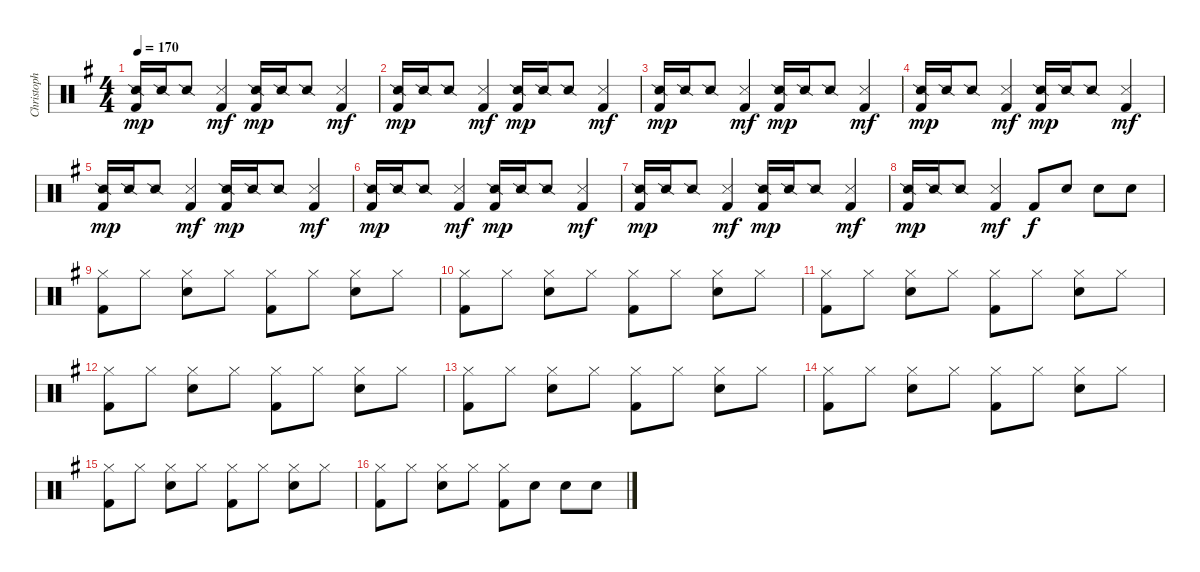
\track ("Christoph Doom Schneider - Drums" "Christoph ") {instrument percussion}
\staff {score}
\articulation defaults
\ts (4 4)
\tempo 170
\clef neutral
\ks g
("Snare (side stick) 2" "Kick (hit) 2").16{dy mp} "Snare (side stick) 2".16 "Snare (side stick) 2".8 ("Snare (side stick) 3" "Kick (hit) 2").4{dy mf} ("Snare (side stick) 2" "Kick (hit) 2").16{dy mp} "Snare (side stick) 2".16 "Snare (side stick) 2".8 ("Snare (side stick) 3" "Kick (hit) 2").4{dy mf} |
("Snare (side stick) 2" "Kick (hit) 2").16{dy mp} "Snare (side stick) 2".16 "Snare (side stick) 2".8 ("Snare (side stick) 3" "Kick (hit) 2").4{dy mf} ("Snare (side stick) 2" "Kick (hit) 2").16{dy mp} "Snare (side stick) 2".16 "Snare (side stick) 2".8 ("Snare (side stick) 3" "Kick (hit) 2").4{dy mf} |
("Snare (side stick) 2" "Kick (hit) 2").16{dy mp} "Snare (side stick) 2".16 "Snare (side stick) 2".8 ("Snare (side stick) 3" "Kick (hit) 2").4{dy mf} ("Snare (side stick) 2" "Kick (hit) 2").16{dy mp} "Snare (side stick) 2".16 "Snare (side stick) 2".8 ("Snare (side stick) 3" "Kick (hit) 2").4{dy mf} |
("Snare (side stick) 2" "Kick (hit) 2").16{dy mp} "Snare (side stick) 2".16 "Snare (side stick) 2".8 ("Snare (side stick) 3" "Kick (hit) 2").4{dy mf} ("Snare (side stick) 2" "Kick (hit) 2").16{dy mp} "Snare (side stick) 2".16 "Snare (side stick) 2".8 ("Snare (side stick) 3" "Kick (hit) 2").4{dy mf} |
("Snare (side stick) 2" "Kick (hit) 2").16{dy mp} "Snare (side stick) 2".16 "Snare (side stick) 2".8 ("Snare (side stick) 3" "Kick (hit) 2").4{dy mf} ("Snare (side stick) 2" "Kick (hit) 2").16{dy mp} "Snare (side stick) 2".16 "Snare (side stick) 2".8 ("Snare (side stick) 3" "Kick (hit) 2").4{dy mf} |
("Snare (side stick) 2" "Kick (hit) 2").16{dy mp} "Snare (side stick) 2".16 "Snare (side stick) 2".8 ("Snare (side stick) 3" "Kick (hit) 2").4{dy mf} ("Snare (side stick) 2" "Kick (hit) 2").16{dy mp} "Snare (side stick) 2".16 "Snare (side stick) 2".8 ("Snare (side stick) 3" "Kick (hit) 2").4{dy mf} |
("Snare (side stick) 2" "Kick (hit) 2").16{dy mp} "Snare (side stick) 2".16 "Snare (side stick) 2".8 ("Snare (side stick) 3" "Kick (hit) 2").4{dy mf} ("Snare (side stick) 2" "Kick (hit) 2").16{dy mp} "Snare (side stick) 2".16 "Snare (side stick) 2".8 ("Snare (side stick) 3" "Kick (hit) 2").4{dy mf} |
("Snare (side stick) 2" "Kick (hit) 2").16{dy mp} "Snare (side stick) 2".16 "Snare (side stick) 2".8 ("Snare (side stick) 3" "Kick (hit) 2").4{dy mf} "Kick (hit) 2".8{dy f} "Electric Snare (hit)".8 "Electric Snare (hit)".8 "Electric Snare (hit)".8 |
("Hi-Hat (closed)" "Kick (hit) 2").8 "Hi-Hat (closed)".8 ("Hi-Hat (closed)" "Electric Snare (hit)").8 "Hi-Hat (closed)".8 ("Hi-Hat (closed)" "Kick (hit) 2").8 "Hi-Hat (closed)".8 ("Hi-Hat (closed)" "Electric Snare (hit)").8 "Hi-Hat (closed)".8 |
("Hi-Hat (closed)" "Kick (hit) 2").8 "Hi-Hat (closed)".8 ("Hi-Hat (closed)" "Electric Snare (hit)").8 "Hi-Hat (closed)".8 ("Hi-Hat (closed)" "Kick (hit) 2").8 "Hi-Hat (closed)".8 ("Hi-Hat (closed)" "Electric Snare (hit)").8 "Hi-Hat (closed)".8 |
("Hi-Hat (closed)" "Kick (hit) 2").8 "Hi-Hat (closed)".8 ("Hi-Hat (closed)" "Electric Snare (hit)").8 "Hi-Hat (closed)".8 ("Hi-Hat (closed)" "Kick (hit) 2").8 "Hi-Hat (closed)".8 ("Hi-Hat (closed)" "Electric Snare (hit)").8 "Hi-Hat (closed)".8 |
("Hi-Hat (closed)" "Kick (hit) 2").8 "Hi-Hat (closed)".8 ("Hi-Hat (closed)" "Electric Snare (hit)").8 "Hi-Hat (closed)".8 ("Hi-Hat (closed)" "Kick (hit) 2").8 "Hi-Hat (closed)".8 ("Hi-Hat (closed)" "Electric Snare (hit)").8 "Hi-Hat (closed)".8 |
("Hi-Hat (closed)" "Kick (hit) 2").8 "Hi-Hat (closed)".8 ("Hi-Hat (closed)" "Electric Snare (hit)").8 "Hi-Hat (closed)".8 ("Hi-Hat (closed)" "Kick (hit) 2").8 "Hi-Hat (closed)".8 ("Hi-Hat (closed)" "Electric Snare (hit)").8 "Hi-Hat (closed)".8 |
("Hi-Hat (closed)" "Kick (hit) 2").8 "Hi-Hat (closed)".8 ("Hi-Hat (closed)" "Electric Snare (hit)").8 "Hi-Hat (closed)".8 ("Hi-Hat (closed)" "Kick (hit) 2").8 "Hi-Hat (closed)".8 ("Hi-Hat (closed)" "Electric Snare (hit)").8 "Hi-Hat (closed)".8 |
("Hi-Hat (closed)" "Kick (hit) 2").8 "Hi-Hat (closed)".8 ("Hi-Hat (closed)" "Electric Snare (hit)").8 "Hi-Hat (closed)".8 ("Hi-Hat (closed)" "Kick (hit) 2").8 "Hi-Hat (closed)".8 ("Hi-Hat (closed)" "Electric Snare (hit)").8 "Hi-Hat (closed)".8 |
("Hi-Hat (closed)" "Kick (hit) 2").8 "Hi-Hat (closed)".8 ("Hi-Hat (closed)" "Electric Snare (hit)").8 "Hi-Hat (closed)".8 ("Hi-Hat (closed)" "Kick (hit) 2").8 "Electric Snare (hit)".8 "Electric Snare (hit)".8 "Electric Snare (hit)".8
